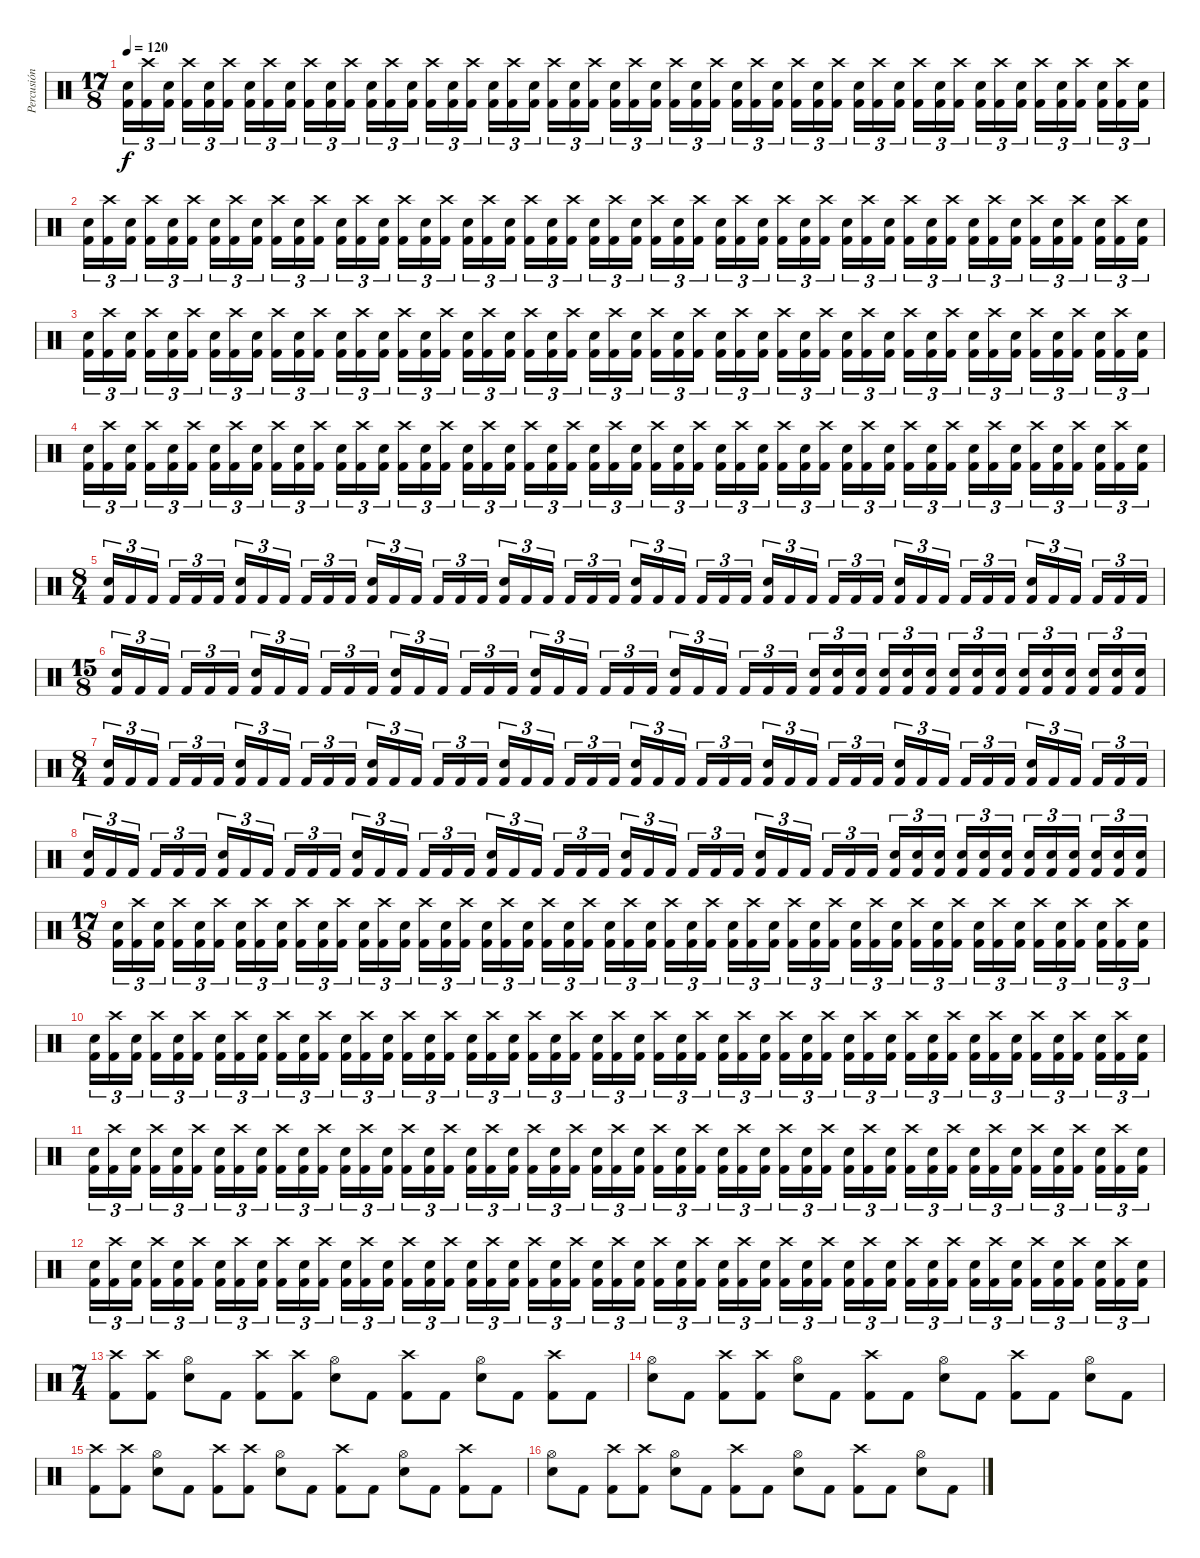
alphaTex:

\track ("Percusión" "Percusión") {instrument percussion}
\staff {score}
\articulation defaults
\ts (17 8)
\tempo 120
\clef neutral
\ks c
("Electric Snare (hit)" "Kick (hit) 2").16{tu (3 2) dy f volume 4} ("Crash high (hit)" "Kick (hit) 2").16{tu (3 2) volume 13} ("Electric Snare (hit)" "Kick (hit) 2").16{tu (3 2)} ("Crash high (hit)" "Kick (hit) 2").16{tu (3 2)} ("Electric Snare (hit)" "Kick (hit) 2").16{tu (3 2)} ("Crash high (hit)" "Kick (hit) 2").16{tu (3 2)} ("Electric Snare (hit)" "Kick (hit) 2").16{tu (3 2)} ("Crash high (hit)" "Kick (hit) 2").16{tu (3 2)} ("Electric Snare (hit)" "Kick (hit) 2").16{tu (3 2)} ("Crash high (hit)" "Kick (hit) 2").16{tu (3 2)} ("Electric Snare (hit)" "Kick (hit) 2").16{tu (3 2)} ("Crash high (hit)" "Kick (hit) 2").16{tu (3 2)} ("Electric Snare (hit)" "Kick (hit) 2").16{tu (3 2)} ("Crash high (hit)" "Kick (hit) 2").16{tu (3 2)} ("Electric Snare (hit)" "Kick (hit) 2").16{tu (3 2)} ("Crash high (hit)" "Kick (hit) 2").16{tu (3 2)} ("Electric Snare (hit)" "Kick (hit) 2").16{tu (3 2)} ("Crash high (hit)" "Kick (hit) 2").16{tu (3 2)} ("Electric Snare (hit)" "Kick (hit) 2").16{tu (3 2)} ("Crash high (hit)" "Kick (hit) 2").16{tu (3 2)} ("Electric Snare (hit)" "Kick (hit) 2").16{tu (3 2)} ("Crash high (hit)" "Kick (hit) 2").16{tu (3 2)} ("Electric Snare (hit)" "Kick (hit) 2").16{tu (3 2)} ("Crash high (hit)" "Kick (hit) 2").16{tu (3 2)} ("Electric Snare (hit)" "Kick (hit) 2").16{tu (3 2)} ("Crash high (hit)" "Kick (hit) 2").16{tu (3 2)} ("Electric Snare (hit)" "Kick (hit) 2").16{tu (3 2)} ("Crash high (hit)" "Kick (hit) 2").16{tu (3 2)} ("Electric Snare (hit)" "Kick (hit) 2").16{tu (3 2)} ("Crash high (hit)" "Kick (hit) 2").16{tu (3 2)} ("Electric Snare (hit)" "Kick (hit) 2").16{tu (3 2)} ("Crash high (hit)" "Kick (hit) 2").16{tu (3 2)} ("Electric Snare (hit)" "Kick (hit) 2").16{tu (3 2)} ("Crash high (hit)" "Kick (hit) 2").16{tu (3 2)} ("Electric Snare (hit)" "Kick (hit) 2").16{tu (3 2)} ("Crash high (hit)" "Kick (hit) 2").16{tu (3 2)} ("Electric Snare (hit)" "Kick (hit) 2").16{tu (3 2)} ("Crash high (hit)" "Kick (hit) 2").16{tu (3 2)} ("Electric Snare (hit)" "Kick (hit) 2").16{tu (3 2)} ("Crash high (hit)" "Kick (hit) 2").16{tu (3 2)} ("Electric Snare (hit)" "Kick (hit) 2").16{tu (3 2)} ("Crash high (hit)" "Kick (hit) 2").16{tu (3 2)} ("Electric Snare (hit)" "Kick (hit) 2").16{tu (3 2)} ("Crash high (hit)" "Kick (hit) 2").16{tu (3 2)} ("Electric Snare (hit)" "Kick (hit) 2").16{tu (3 2)} ("Crash high (hit)" "Kick (hit) 2").16{tu (3 2)} ("Electric Snare (hit)" "Kick (hit) 2").16{tu (3 2)} ("Crash high (hit)" "Kick (hit) 2").16{tu (3 2)} ("Electric Snare (hit)" "Kick (hit) 2").16{tu (3 2)} ("Crash high (hit)" "Kick (hit) 2").16{tu (3 2)} ("Electric Snare (hit)" "Kick (hit) 2").16{tu (3 2)} |
("Electric Snare (hit)" "Kick (hit) 2").16{tu (3 2)} ("Crash high (hit)" "Kick (hit) 2").16{tu (3 2)} ("Electric Snare (hit)" "Kick (hit) 2").16{tu (3 2)} ("Crash high (hit)" "Kick (hit) 2").16{tu (3 2)} ("Electric Snare (hit)" "Kick (hit) 2").16{tu (3 2)} ("Crash high (hit)" "Kick (hit) 2").16{tu (3 2)} ("Electric Snare (hit)" "Kick (hit) 2").16{tu (3 2)} ("Crash high (hit)" "Kick (hit) 2").16{tu (3 2)} ("Electric Snare (hit)" "Kick (hit) 2").16{tu (3 2)} ("Crash high (hit)" "Kick (hit) 2").16{tu (3 2)} ("Electric Snare (hit)" "Kick (hit) 2").16{tu (3 2)} ("Crash high (hit)" "Kick (hit) 2").16{tu (3 2)} ("Electric Snare (hit)" "Kick (hit) 2").16{tu (3 2)} ("Crash high (hit)" "Kick (hit) 2").16{tu (3 2)} ("Electric Snare (hit)" "Kick (hit) 2").16{tu (3 2)} ("Crash high (hit)" "Kick (hit) 2").16{tu (3 2)} ("Electric Snare (hit)" "Kick (hit) 2").16{tu (3 2)} ("Crash high (hit)" "Kick (hit) 2").16{tu (3 2)} ("Electric Snare (hit)" "Kick (hit) 2").16{tu (3 2)} ("Crash high (hit)" "Kick (hit) 2").16{tu (3 2)} ("Electric Snare (hit)" "Kick (hit) 2").16{tu (3 2)} ("Crash high (hit)" "Kick (hit) 2").16{tu (3 2)} ("Electric Snare (hit)" "Kick (hit) 2").16{tu (3 2)} ("Crash high (hit)" "Kick (hit) 2").16{tu (3 2)} ("Electric Snare (hit)" "Kick (hit) 2").16{tu (3 2)} ("Crash high (hit)" "Kick (hit) 2").16{tu (3 2)} ("Electric Snare (hit)" "Kick (hit) 2").16{tu (3 2)} ("Crash high (hit)" "Kick (hit) 2").16{tu (3 2)} ("Electric Snare (hit)" "Kick (hit) 2").16{tu (3 2)} ("Crash high (hit)" "Kick (hit) 2").16{tu (3 2)} ("Electric Snare (hit)" "Kick (hit) 2").16{tu (3 2)} ("Crash high (hit)" "Kick (hit) 2").16{tu (3 2)} ("Electric Snare (hit)" "Kick (hit) 2").16{tu (3 2)} ("Crash high (hit)" "Kick (hit) 2").16{tu (3 2)} ("Electric Snare (hit)" "Kick (hit) 2").16{tu (3 2)} ("Crash high (hit)" "Kick (hit) 2").16{tu (3 2)} ("Electric Snare (hit)" "Kick (hit) 2").16{tu (3 2)} ("Crash high (hit)" "Kick (hit) 2").16{tu (3 2)} ("Electric Snare (hit)" "Kick (hit) 2").16{tu (3 2)} ("Crash high (hit)" "Kick (hit) 2").16{tu (3 2)} ("Electric Snare (hit)" "Kick (hit) 2").16{tu (3 2)} ("Crash high (hit)" "Kick (hit) 2").16{tu (3 2)} ("Electric Snare (hit)" "Kick (hit) 2").16{tu (3 2)} ("Crash high (hit)" "Kick (hit) 2").16{tu (3 2)} ("Electric Snare (hit)" "Kick (hit) 2").16{tu (3 2)} ("Crash high (hit)" "Kick (hit) 2").16{tu (3 2)} ("Electric Snare (hit)" "Kick (hit) 2").16{tu (3 2)} ("Crash high (hit)" "Kick (hit) 2").16{tu (3 2)} ("Electric Snare (hit)" "Kick (hit) 2").16{tu (3 2)} ("Crash high (hit)" "Kick (hit) 2").16{tu (3 2)} ("Electric Snare (hit)" "Kick (hit) 2").16{tu (3 2)} |
("Electric Snare (hit)" "Kick (hit) 2").16{tu (3 2)} ("Crash high (hit)" "Kick (hit) 2").16{tu (3 2)} ("Electric Snare (hit)" "Kick (hit) 2").16{tu (3 2)} ("Crash high (hit)" "Kick (hit) 2").16{tu (3 2)} ("Electric Snare (hit)" "Kick (hit) 2").16{tu (3 2)} ("Crash high (hit)" "Kick (hit) 2").16{tu (3 2)} ("Electric Snare (hit)" "Kick (hit) 2").16{tu (3 2)} ("Crash high (hit)" "Kick (hit) 2").16{tu (3 2)} ("Electric Snare (hit)" "Kick (hit) 2").16{tu (3 2)} ("Crash high (hit)" "Kick (hit) 2").16{tu (3 2)} ("Electric Snare (hit)" "Kick (hit) 2").16{tu (3 2)} ("Crash high (hit)" "Kick (hit) 2").16{tu (3 2)} ("Electric Snare (hit)" "Kick (hit) 2").16{tu (3 2)} ("Crash high (hit)" "Kick (hit) 2").16{tu (3 2)} ("Electric Snare (hit)" "Kick (hit) 2").16{tu (3 2)} ("Crash high (hit)" "Kick (hit) 2").16{tu (3 2)} ("Electric Snare (hit)" "Kick (hit) 2").16{tu (3 2)} ("Crash high (hit)" "Kick (hit) 2").16{tu (3 2)} ("Electric Snare (hit)" "Kick (hit) 2").16{tu (3 2)} ("Crash high (hit)" "Kick (hit) 2").16{tu (3 2)} ("Electric Snare (hit)" "Kick (hit) 2").16{tu (3 2)} ("Crash high (hit)" "Kick (hit) 2").16{tu (3 2)} ("Electric Snare (hit)" "Kick (hit) 2").16{tu (3 2)} ("Crash high (hit)" "Kick (hit) 2").16{tu (3 2)} ("Electric Snare (hit)" "Kick (hit) 2").16{tu (3 2)} ("Crash high (hit)" "Kick (hit) 2").16{tu (3 2)} ("Electric Snare (hit)" "Kick (hit) 2").16{tu (3 2)} ("Crash high (hit)" "Kick (hit) 2").16{tu (3 2)} ("Electric Snare (hit)" "Kick (hit) 2").16{tu (3 2)} ("Crash high (hit)" "Kick (hit) 2").16{tu (3 2)} ("Electric Snare (hit)" "Kick (hit) 2").16{tu (3 2)} ("Crash high (hit)" "Kick (hit) 2").16{tu (3 2)} ("Electric Snare (hit)" "Kick (hit) 2").16{tu (3 2)} ("Crash high (hit)" "Kick (hit) 2").16{tu (3 2)} ("Electric Snare (hit)" "Kick (hit) 2").16{tu (3 2)} ("Crash high (hit)" "Kick (hit) 2").16{tu (3 2)} ("Electric Snare (hit)" "Kick (hit) 2").16{tu (3 2)} ("Crash high (hit)" "Kick (hit) 2").16{tu (3 2)} ("Electric Snare (hit)" "Kick (hit) 2").16{tu (3 2)} ("Crash high (hit)" "Kick (hit) 2").16{tu (3 2)} ("Electric Snare (hit)" "Kick (hit) 2").16{tu (3 2)} ("Crash high (hit)" "Kick (hit) 2").16{tu (3 2)} ("Electric Snare (hit)" "Kick (hit) 2").16{tu (3 2)} ("Crash high (hit)" "Kick (hit) 2").16{tu (3 2)} ("Electric Snare (hit)" "Kick (hit) 2").16{tu (3 2)} ("Crash high (hit)" "Kick (hit) 2").16{tu (3 2)} ("Electric Snare (hit)" "Kick (hit) 2").16{tu (3 2)} ("Crash high (hit)" "Kick (hit) 2").16{tu (3 2)} ("Electric Snare (hit)" "Kick (hit) 2").16{tu (3 2)} ("Crash high (hit)" "Kick (hit) 2").16{tu (3 2)} ("Electric Snare (hit)" "Kick (hit) 2").16{tu (3 2)} |
("Electric Snare (hit)" "Kick (hit) 2").16{tu (3 2)} ("Crash high (hit)" "Kick (hit) 2").16{tu (3 2)} ("Electric Snare (hit)" "Kick (hit) 2").16{tu (3 2)} ("Crash high (hit)" "Kick (hit) 2").16{tu (3 2)} ("Electric Snare (hit)" "Kick (hit) 2").16{tu (3 2)} ("Crash high (hit)" "Kick (hit) 2").16{tu (3 2)} ("Electric Snare (hit)" "Kick (hit) 2").16{tu (3 2)} ("Crash high (hit)" "Kick (hit) 2").16{tu (3 2)} ("Electric Snare (hit)" "Kick (hit) 2").16{tu (3 2)} ("Crash high (hit)" "Kick (hit) 2").16{tu (3 2)} ("Electric Snare (hit)" "Kick (hit) 2").16{tu (3 2)} ("Crash high (hit)" "Kick (hit) 2").16{tu (3 2)} ("Electric Snare (hit)" "Kick (hit) 2").16{tu (3 2)} ("Crash high (hit)" "Kick (hit) 2").16{tu (3 2)} ("Electric Snare (hit)" "Kick (hit) 2").16{tu (3 2)} ("Crash high (hit)" "Kick (hit) 2").16{tu (3 2)} ("Electric Snare (hit)" "Kick (hit) 2").16{tu (3 2)} ("Crash high (hit)" "Kick (hit) 2").16{tu (3 2)} ("Electric Snare (hit)" "Kick (hit) 2").16{tu (3 2)} ("Crash high (hit)" "Kick (hit) 2").16{tu (3 2)} ("Electric Snare (hit)" "Kick (hit) 2").16{tu (3 2)} ("Crash high (hit)" "Kick (hit) 2").16{tu (3 2)} ("Electric Snare (hit)" "Kick (hit) 2").16{tu (3 2)} ("Crash high (hit)" "Kick (hit) 2").16{tu (3 2)} ("Electric Snare (hit)" "Kick (hit) 2").16{tu (3 2)} ("Crash high (hit)" "Kick (hit) 2").16{tu (3 2)} ("Electric Snare (hit)" "Kick (hit) 2").16{tu (3 2)} ("Crash high (hit)" "Kick (hit) 2").16{tu (3 2)} ("Electric Snare (hit)" "Kick (hit) 2").16{tu (3 2)} ("Crash high (hit)" "Kick (hit) 2").16{tu (3 2)} ("Electric Snare (hit)" "Kick (hit) 2").16{tu (3 2)} ("Crash high (hit)" "Kick (hit) 2").16{tu (3 2)} ("Electric Snare (hit)" "Kick (hit) 2").16{tu (3 2)} ("Crash high (hit)" "Kick (hit) 2").16{tu (3 2)} ("Electric Snare (hit)" "Kick (hit) 2").16{tu (3 2)} ("Crash high (hit)" "Kick (hit) 2").16{tu (3 2)} ("Electric Snare (hit)" "Kick (hit) 2").16{tu (3 2)} ("Crash high (hit)" "Kick (hit) 2").16{tu (3 2)} ("Electric Snare (hit)" "Kick (hit) 2").16{tu (3 2)} ("Crash high (hit)" "Kick (hit) 2").16{tu (3 2)} ("Electric Snare (hit)" "Kick (hit) 2").16{tu (3 2)} ("Crash high (hit)" "Kick (hit) 2").16{tu (3 2)} ("Electric Snare (hit)" "Kick (hit) 2").16{tu (3 2)} ("Crash high (hit)" "Kick (hit) 2").16{tu (3 2)} ("Electric Snare (hit)" "Kick (hit) 2").16{tu (3 2)} ("Crash high (hit)" "Kick (hit) 2").16{tu (3 2)} ("Electric Snare (hit)" "Kick (hit) 2").16{tu (3 2)} ("Crash high (hit)" "Kick (hit) 2").16{tu (3 2)} ("Electric Snare (hit)" "Kick (hit) 2").16{tu (3 2)} ("Crash high (hit)" "Kick (hit) 2").16{tu (3 2)} ("Electric Snare (hit)" "Kick (hit) 2").16{tu (3 2)} |
\ts (8 4)
("Electric Snare (hit)" "Kick (hit) 2").16{tu (3 2)} "Kick (hit) 2".16{tu (3 2)} "Kick (hit) 2".16{tu (3 2)} "Kick (hit) 2".16{tu (3 2)} "Kick (hit) 2".16{tu (3 2)} "Kick (hit) 2".16{tu (3 2)} ("Electric Snare (hit)" "Kick (hit) 2").16{tu (3 2)} "Kick (hit) 2".16{tu (3 2)} "Kick (hit) 2".16{tu (3 2)} "Kick (hit) 2".16{tu (3 2)} "Kick (hit) 2".16{tu (3 2)} "Kick (hit) 2".16{tu (3 2)} ("Electric Snare (hit)" "Kick (hit) 2").16{tu (3 2)} "Kick (hit) 2".16{tu (3 2)} "Kick (hit) 2".16{tu (3 2)} "Kick (hit) 2".16{tu (3 2)} "Kick (hit) 2".16{tu (3 2)} "Kick (hit) 2".16{tu (3 2)} ("Electric Snare (hit)" "Kick (hit) 2").16{tu (3 2)} "Kick (hit) 2".16{tu (3 2)} "Kick (hit) 2".16{tu (3 2)} "Kick (hit) 2".16{tu (3 2)} "Kick (hit) 2".16{tu (3 2)} "Kick (hit) 2".16{tu (3 2)} ("Electric Snare (hit)" "Kick (hit) 2").16{tu (3 2)} "Kick (hit) 2".16{tu (3 2)} "Kick (hit) 2".16{tu (3 2)} "Kick (hit) 2".16{tu (3 2)} "Kick (hit) 2".16{tu (3 2)} "Kick (hit) 2".16{tu (3 2)} ("Electric Snare (hit)" "Kick (hit) 2").16{tu (3 2)} "Kick (hit) 2".16{tu (3 2)} "Kick (hit) 2".16{tu (3 2)} "Kick (hit) 2".16{tu (3 2)} "Kick (hit) 2".16{tu (3 2)} "Kick (hit) 2".16{tu (3 2)} ("Electric Snare (hit)" "Kick (hit) 2").16{tu (3 2)} "Kick (hit) 2".16{tu (3 2)} "Kick (hit) 2".16{tu (3 2)} "Kick (hit) 2".16{tu (3 2)} "Kick (hit) 2".16{tu (3 2)} "Kick (hit) 2".16{tu (3 2)} ("Electric Snare (hit)" "Kick (hit) 2").16{tu (3 2)} "Kick (hit) 2".16{tu (3 2)} "Kick (hit) 2".16{tu (3 2)} "Kick (hit) 2".16{tu (3 2)} "Kick (hit) 2".16{tu (3 2)} "Kick (hit) 2".16{tu (3 2)} |
\ts (15 8)
("Electric Snare (hit)" "Kick (hit) 2").16{tu (3 2)} "Kick (hit) 2".16{tu (3 2)} "Kick (hit) 2".16{tu (3 2)} "Kick (hit) 2".16{tu (3 2)} "Kick (hit) 2".16{tu (3 2)} "Kick (hit) 2".16{tu (3 2)} ("Electric Snare (hit)" "Kick (hit) 2").16{tu (3 2)} "Kick (hit) 2".16{tu (3 2)} "Kick (hit) 2".16{tu (3 2)} "Kick (hit) 2".16{tu (3 2)} "Kick (hit) 2".16{tu (3 2)} "Kick (hit) 2".16{tu (3 2)} ("Electric Snare (hit)" "Kick (hit) 2").16{tu (3 2)} "Kick (hit) 2".16{tu (3 2)} "Kick (hit) 2".16{tu (3 2)} "Kick (hit) 2".16{tu (3 2)} "Kick (hit) 2".16{tu (3 2)} "Kick (hit) 2".16{tu (3 2)} ("Electric Snare (hit)" "Kick (hit) 2").16{tu (3 2)} "Kick (hit) 2".16{tu (3 2)} "Kick (hit) 2".16{tu (3 2)} "Kick (hit) 2".16{tu (3 2)} "Kick (hit) 2".16{tu (3 2)} "Kick (hit) 2".16{tu (3 2)} ("Electric Snare (hit)" "Kick (hit) 2").16{tu (3 2)} "Kick (hit) 2".16{tu (3 2)} "Kick (hit) 2".16{tu (3 2)} "Kick (hit) 2".16{tu (3 2)} "Kick (hit) 2".16{tu (3 2)} "Kick (hit) 2".16{tu (3 2)} ("Electric Snare (hit)" "Kick (hit) 2").16{tu (3 2)} ("Electric Snare (hit)" "Kick (hit) 2").16{tu (3 2)} ("Electric Snare (hit)" "Kick (hit) 2").16{tu (3 2)} ("Electric Snare (hit)" "Kick (hit) 2").16{tu (3 2)} ("Electric Snare (hit)" "Kick (hit) 2").16{tu (3 2)} ("Electric Snare (hit)" "Kick (hit) 2").16{tu (3 2)} ("Electric Snare (hit)" "Kick (hit) 2").16{tu (3 2)} ("Electric Snare (hit)" "Kick (hit) 2").16{tu (3 2)} ("Electric Snare (hit)" "Kick (hit) 2").16{tu (3 2)} ("Electric Snare (hit)" "Kick (hit) 2").16{tu (3 2)} ("Electric Snare (hit)" "Kick (hit) 2").16{tu (3 2)} ("Electric Snare (hit)" "Kick (hit) 2").16{tu (3 2)} ("Electric Snare (hit)" "Kick (hit) 2").16{tu (3 2)} ("Electric Snare (hit)" "Kick (hit) 2").16{tu (3 2)} ("Electric Snare (hit)" "Kick (hit) 2").16{tu (3 2)} |
\ts (8 4)
("Electric Snare (hit)" "Kick (hit) 2").16{tu (3 2)} "Kick (hit) 2".16{tu (3 2)} "Kick (hit) 2".16{tu (3 2)} "Kick (hit) 2".16{tu (3 2)} "Kick (hit) 2".16{tu (3 2)} "Kick (hit) 2".16{tu (3 2)} ("Electric Snare (hit)" "Kick (hit) 2").16{tu (3 2)} "Kick (hit) 2".16{tu (3 2)} "Kick (hit) 2".16{tu (3 2)} "Kick (hit) 2".16{tu (3 2)} "Kick (hit) 2".16{tu (3 2)} "Kick (hit) 2".16{tu (3 2)} ("Electric Snare (hit)" "Kick (hit) 2").16{tu (3 2)} "Kick (hit) 2".16{tu (3 2)} "Kick (hit) 2".16{tu (3 2)} "Kick (hit) 2".16{tu (3 2)} "Kick (hit) 2".16{tu (3 2)} "Kick (hit) 2".16{tu (3 2)} ("Electric Snare (hit)" "Kick (hit) 2").16{tu (3 2)} "Kick (hit) 2".16{tu (3 2)} "Kick (hit) 2".16{tu (3 2)} "Kick (hit) 2".16{tu (3 2)} "Kick (hit) 2".16{tu (3 2)} "Kick (hit) 2".16{tu (3 2)} ("Electric Snare (hit)" "Kick (hit) 2").16{tu (3 2)} "Kick (hit) 2".16{tu (3 2)} "Kick (hit) 2".16{tu (3 2)} "Kick (hit) 2".16{tu (3 2)} "Kick (hit) 2".16{tu (3 2)} "Kick (hit) 2".16{tu (3 2)} ("Electric Snare (hit)" "Kick (hit) 2").16{tu (3 2)} "Kick (hit) 2".16{tu (3 2)} "Kick (hit) 2".16{tu (3 2)} "Kick (hit) 2".16{tu (3 2)} "Kick (hit) 2".16{tu (3 2)} "Kick (hit) 2".16{tu (3 2)} ("Electric Snare (hit)" "Kick (hit) 2").16{tu (3 2)} "Kick (hit) 2".16{tu (3 2)} "Kick (hit) 2".16{tu (3 2)} "Kick (hit) 2".16{tu (3 2)} "Kick (hit) 2".16{tu (3 2)} "Kick (hit) 2".16{tu (3 2)} ("Electric Snare (hit)" "Kick (hit) 2").16{tu (3 2)} "Kick (hit) 2".16{tu (3 2)} "Kick (hit) 2".16{tu (3 2)} "Kick (hit) 2".16{tu (3 2)} "Kick (hit) 2".16{tu (3 2)} "Kick (hit) 2".16{tu (3 2)} |
("Electric Snare (hit)" "Kick (hit) 2").16{tu (3 2)} "Kick (hit) 2".16{tu (3 2)} "Kick (hit) 2".16{tu (3 2)} "Kick (hit) 2".16{tu (3 2)} "Kick (hit) 2".16{tu (3 2)} "Kick (hit) 2".16{tu (3 2)} ("Electric Snare (hit)" "Kick (hit) 2").16{tu (3 2)} "Kick (hit) 2".16{tu (3 2)} "Kick (hit) 2".16{tu (3 2)} "Kick (hit) 2".16{tu (3 2)} "Kick (hit) 2".16{tu (3 2)} "Kick (hit) 2".16{tu (3 2)} ("Electric Snare (hit)" "Kick (hit) 2").16{tu (3 2)} "Kick (hit) 2".16{tu (3 2)} "Kick (hit) 2".16{tu (3 2)} "Kick (hit) 2".16{tu (3 2)} "Kick (hit) 2".16{tu (3 2)} "Kick (hit) 2".16{tu (3 2)} ("Electric Snare (hit)" "Kick (hit) 2").16{tu (3 2)} "Kick (hit) 2".16{tu (3 2)} "Kick (hit) 2".16{tu (3 2)} "Kick (hit) 2".16{tu (3 2)} "Kick (hit) 2".16{tu (3 2)} "Kick (hit) 2".16{tu (3 2)} ("Electric Snare (hit)" "Kick (hit) 2").16{tu (3 2)} "Kick (hit) 2".16{tu (3 2)} "Kick (hit) 2".16{tu (3 2)} "Kick (hit) 2".16{tu (3 2)} "Kick (hit) 2".16{tu (3 2)} "Kick (hit) 2".16{tu (3 2)} ("Electric Snare (hit)" "Kick (hit) 2").16{tu (3 2)} "Kick (hit) 2".16{tu (3 2)} "Kick (hit) 2".16{tu (3 2)} "Kick (hit) 2".16{tu (3 2)} "Kick (hit) 2".16{tu (3 2)} "Kick (hit) 2".16{tu (3 2)} ("Electric Snare (hit)" "Kick (hit) 2").16{tu (3 2)} ("Electric Snare (hit)" "Kick (hit) 2").16{tu (3 2)} ("Electric Snare (hit)" "Kick (hit) 2").16{tu (3 2)} ("Electric Snare (hit)" "Kick (hit) 2").16{tu (3 2)} ("Electric Snare (hit)" "Kick (hit) 2").16{tu (3 2)} ("Electric Snare (hit)" "Kick (hit) 2").16{tu (3 2)} ("Electric Snare (hit)" "Kick (hit) 2").16{tu (3 2)} ("Electric Snare (hit)" "Kick (hit) 2").16{tu (3 2)} ("Electric Snare (hit)" "Kick (hit) 2").16{tu (3 2)} ("Electric Snare (hit)" "Kick (hit) 2").16{tu (3 2)} ("Electric Snare (hit)" "Kick (hit) 2").16{tu (3 2)} ("Electric Snare (hit)" "Kick (hit) 2").16{tu (3 2)} |
\ts (17 8)
("Electric Snare (hit)" "Kick (hit) 2").16{tu (3 2)} ("Crash high (hit)" "Kick (hit) 2").16{tu (3 2)} ("Electric Snare (hit)" "Kick (hit) 2").16{tu (3 2)} ("Crash high (hit)" "Kick (hit) 2").16{tu (3 2)} ("Electric Snare (hit)" "Kick (hit) 2").16{tu (3 2)} ("Crash high (hit)" "Kick (hit) 2").16{tu (3 2)} ("Electric Snare (hit)" "Kick (hit) 2").16{tu (3 2)} ("Crash high (hit)" "Kick (hit) 2").16{tu (3 2)} ("Electric Snare (hit)" "Kick (hit) 2").16{tu (3 2)} ("Crash high (hit)" "Kick (hit) 2").16{tu (3 2)} ("Electric Snare (hit)" "Kick (hit) 2").16{tu (3 2)} ("Crash high (hit)" "Kick (hit) 2").16{tu (3 2)} ("Electric Snare (hit)" "Kick (hit) 2").16{tu (3 2)} ("Crash high (hit)" "Kick (hit) 2").16{tu (3 2)} ("Electric Snare (hit)" "Kick (hit) 2").16{tu (3 2)} ("Crash high (hit)" "Kick (hit) 2").16{tu (3 2)} ("Electric Snare (hit)" "Kick (hit) 2").16{tu (3 2)} ("Crash high (hit)" "Kick (hit) 2").16{tu (3 2)} ("Electric Snare (hit)" "Kick (hit) 2").16{tu (3 2)} ("Crash high (hit)" "Kick (hit) 2").16{tu (3 2)} ("Electric Snare (hit)" "Kick (hit) 2").16{tu (3 2)} ("Crash high (hit)" "Kick (hit) 2").16{tu (3 2)} ("Electric Snare (hit)" "Kick (hit) 2").16{tu (3 2)} ("Crash high (hit)" "Kick (hit) 2").16{tu (3 2)} ("Electric Snare (hit)" "Kick (hit) 2").16{tu (3 2)} ("Crash high (hit)" "Kick (hit) 2").16{tu (3 2)} ("Electric Snare (hit)" "Kick (hit) 2").16{tu (3 2)} ("Crash high (hit)" "Kick (hit) 2").16{tu (3 2)} ("Electric Snare (hit)" "Kick (hit) 2").16{tu (3 2)} ("Crash high (hit)" "Kick (hit) 2").16{tu (3 2)} ("Electric Snare (hit)" "Kick (hit) 2").16{tu (3 2)} ("Crash high (hit)" "Kick (hit) 2").16{tu (3 2)} ("Electric Snare (hit)" "Kick (hit) 2").16{tu (3 2)} ("Crash high (hit)" "Kick (hit) 2").16{tu (3 2)} ("Electric Snare (hit)" "Kick (hit) 2").16{tu (3 2)} ("Crash high (hit)" "Kick (hit) 2").16{tu (3 2)} ("Electric Snare (hit)" "Kick (hit) 2").16{tu (3 2)} ("Crash high (hit)" "Kick (hit) 2").16{tu (3 2)} ("Electric Snare (hit)" "Kick (hit) 2").16{tu (3 2)} ("Crash high (hit)" "Kick (hit) 2").16{tu (3 2)} ("Electric Snare (hit)" "Kick (hit) 2").16{tu (3 2)} ("Crash high (hit)" "Kick (hit) 2").16{tu (3 2)} ("Electric Snare (hit)" "Kick (hit) 2").16{tu (3 2)} ("Crash high (hit)" "Kick (hit) 2").16{tu (3 2)} ("Electric Snare (hit)" "Kick (hit) 2").16{tu (3 2)} ("Crash high (hit)" "Kick (hit) 2").16{tu (3 2)} ("Electric Snare (hit)" "Kick (hit) 2").16{tu (3 2)} ("Crash high (hit)" "Kick (hit) 2").16{tu (3 2)} ("Electric Snare (hit)" "Kick (hit) 2").16{tu (3 2)} ("Crash high (hit)" "Kick (hit) 2").16{tu (3 2)} ("Electric Snare (hit)" "Kick (hit) 2").16{tu (3 2)} |
("Electric Snare (hit)" "Kick (hit) 2").16{tu (3 2)} ("Crash high (hit)" "Kick (hit) 2").16{tu (3 2)} ("Electric Snare (hit)" "Kick (hit) 2").16{tu (3 2)} ("Crash high (hit)" "Kick (hit) 2").16{tu (3 2)} ("Electric Snare (hit)" "Kick (hit) 2").16{tu (3 2)} ("Crash high (hit)" "Kick (hit) 2").16{tu (3 2)} ("Electric Snare (hit)" "Kick (hit) 2").16{tu (3 2)} ("Crash high (hit)" "Kick (hit) 2").16{tu (3 2)} ("Electric Snare (hit)" "Kick (hit) 2").16{tu (3 2)} ("Crash high (hit)" "Kick (hit) 2").16{tu (3 2)} ("Electric Snare (hit)" "Kick (hit) 2").16{tu (3 2)} ("Crash high (hit)" "Kick (hit) 2").16{tu (3 2)} ("Electric Snare (hit)" "Kick (hit) 2").16{tu (3 2)} ("Crash high (hit)" "Kick (hit) 2").16{tu (3 2)} ("Electric Snare (hit)" "Kick (hit) 2").16{tu (3 2)} ("Crash high (hit)" "Kick (hit) 2").16{tu (3 2)} ("Electric Snare (hit)" "Kick (hit) 2").16{tu (3 2)} ("Crash high (hit)" "Kick (hit) 2").16{tu (3 2)} ("Electric Snare (hit)" "Kick (hit) 2").16{tu (3 2)} ("Crash high (hit)" "Kick (hit) 2").16{tu (3 2)} ("Electric Snare (hit)" "Kick (hit) 2").16{tu (3 2)} ("Crash high (hit)" "Kick (hit) 2").16{tu (3 2)} ("Electric Snare (hit)" "Kick (hit) 2").16{tu (3 2)} ("Crash high (hit)" "Kick (hit) 2").16{tu (3 2)} ("Electric Snare (hit)" "Kick (hit) 2").16{tu (3 2)} ("Crash high (hit)" "Kick (hit) 2").16{tu (3 2)} ("Electric Snare (hit)" "Kick (hit) 2").16{tu (3 2)} ("Crash high (hit)" "Kick (hit) 2").16{tu (3 2)} ("Electric Snare (hit)" "Kick (hit) 2").16{tu (3 2)} ("Crash high (hit)" "Kick (hit) 2").16{tu (3 2)} ("Electric Snare (hit)" "Kick (hit) 2").16{tu (3 2)} ("Crash high (hit)" "Kick (hit) 2").16{tu (3 2)} ("Electric Snare (hit)" "Kick (hit) 2").16{tu (3 2)} ("Crash high (hit)" "Kick (hit) 2").16{tu (3 2)} ("Electric Snare (hit)" "Kick (hit) 2").16{tu (3 2)} ("Crash high (hit)" "Kick (hit) 2").16{tu (3 2)} ("Electric Snare (hit)" "Kick (hit) 2").16{tu (3 2)} ("Crash high (hit)" "Kick (hit) 2").16{tu (3 2)} ("Electric Snare (hit)" "Kick (hit) 2").16{tu (3 2)} ("Crash high (hit)" "Kick (hit) 2").16{tu (3 2)} ("Electric Snare (hit)" "Kick (hit) 2").16{tu (3 2)} ("Crash high (hit)" "Kick (hit) 2").16{tu (3 2)} ("Electric Snare (hit)" "Kick (hit) 2").16{tu (3 2)} ("Crash high (hit)" "Kick (hit) 2").16{tu (3 2)} ("Electric Snare (hit)" "Kick (hit) 2").16{tu (3 2)} ("Crash high (hit)" "Kick (hit) 2").16{tu (3 2)} ("Electric Snare (hit)" "Kick (hit) 2").16{tu (3 2)} ("Crash high (hit)" "Kick (hit) 2").16{tu (3 2)} ("Electric Snare (hit)" "Kick (hit) 2").16{tu (3 2)} ("Crash high (hit)" "Kick (hit) 2").16{tu (3 2)} ("Electric Snare (hit)" "Kick (hit) 2").16{tu (3 2)} |
("Electric Snare (hit)" "Kick (hit) 2").16{tu (3 2)} ("Crash high (hit)" "Kick (hit) 2").16{tu (3 2)} ("Electric Snare (hit)" "Kick (hit) 2").16{tu (3 2)} ("Crash high (hit)" "Kick (hit) 2").16{tu (3 2)} ("Electric Snare (hit)" "Kick (hit) 2").16{tu (3 2)} ("Crash high (hit)" "Kick (hit) 2").16{tu (3 2)} ("Electric Snare (hit)" "Kick (hit) 2").16{tu (3 2)} ("Crash high (hit)" "Kick (hit) 2").16{tu (3 2)} ("Electric Snare (hit)" "Kick (hit) 2").16{tu (3 2)} ("Crash high (hit)" "Kick (hit) 2").16{tu (3 2)} ("Electric Snare (hit)" "Kick (hit) 2").16{tu (3 2)} ("Crash high (hit)" "Kick (hit) 2").16{tu (3 2)} ("Electric Snare (hit)" "Kick (hit) 2").16{tu (3 2)} ("Crash high (hit)" "Kick (hit) 2").16{tu (3 2)} ("Electric Snare (hit)" "Kick (hit) 2").16{tu (3 2)} ("Crash high (hit)" "Kick (hit) 2").16{tu (3 2)} ("Electric Snare (hit)" "Kick (hit) 2").16{tu (3 2)} ("Crash high (hit)" "Kick (hit) 2").16{tu (3 2)} ("Electric Snare (hit)" "Kick (hit) 2").16{tu (3 2)} ("Crash high (hit)" "Kick (hit) 2").16{tu (3 2)} ("Electric Snare (hit)" "Kick (hit) 2").16{tu (3 2)} ("Crash high (hit)" "Kick (hit) 2").16{tu (3 2)} ("Electric Snare (hit)" "Kick (hit) 2").16{tu (3 2)} ("Crash high (hit)" "Kick (hit) 2").16{tu (3 2)} ("Electric Snare (hit)" "Kick (hit) 2").16{tu (3 2)} ("Crash high (hit)" "Kick (hit) 2").16{tu (3 2)} ("Electric Snare (hit)" "Kick (hit) 2").16{tu (3 2)} ("Crash high (hit)" "Kick (hit) 2").16{tu (3 2)} ("Electric Snare (hit)" "Kick (hit) 2").16{tu (3 2)} ("Crash high (hit)" "Kick (hit) 2").16{tu (3 2)} ("Electric Snare (hit)" "Kick (hit) 2").16{tu (3 2)} ("Crash high (hit)" "Kick (hit) 2").16{tu (3 2)} ("Electric Snare (hit)" "Kick (hit) 2").16{tu (3 2)} ("Crash high (hit)" "Kick (hit) 2").16{tu (3 2)} ("Electric Snare (hit)" "Kick (hit) 2").16{tu (3 2)} ("Crash high (hit)" "Kick (hit) 2").16{tu (3 2)} ("Electric Snare (hit)" "Kick (hit) 2").16{tu (3 2)} ("Crash high (hit)" "Kick (hit) 2").16{tu (3 2)} ("Electric Snare (hit)" "Kick (hit) 2").16{tu (3 2)} ("Crash high (hit)" "Kick (hit) 2").16{tu (3 2)} ("Electric Snare (hit)" "Kick (hit) 2").16{tu (3 2)} ("Crash high (hit)" "Kick (hit) 2").16{tu (3 2)} ("Electric Snare (hit)" "Kick (hit) 2").16{tu (3 2)} ("Crash high (hit)" "Kick (hit) 2").16{tu (3 2)} ("Electric Snare (hit)" "Kick (hit) 2").16{tu (3 2)} ("Crash high (hit)" "Kick (hit) 2").16{tu (3 2)} ("Electric Snare (hit)" "Kick (hit) 2").16{tu (3 2)} ("Crash high (hit)" "Kick (hit) 2").16{tu (3 2)} ("Electric Snare (hit)" "Kick (hit) 2").16{tu (3 2)} ("Crash high (hit)" "Kick (hit) 2").16{tu (3 2)} ("Electric Snare (hit)" "Kick (hit) 2").16{tu (3 2)} |
("Electric Snare (hit)" "Kick (hit) 2").16{tu (3 2)} ("Crash high (hit)" "Kick (hit) 2").16{tu (3 2)} ("Electric Snare (hit)" "Kick (hit) 2").16{tu (3 2)} ("Crash high (hit)" "Kick (hit) 2").16{tu (3 2)} ("Electric Snare (hit)" "Kick (hit) 2").16{tu (3 2)} ("Crash high (hit)" "Kick (hit) 2").16{tu (3 2)} ("Electric Snare (hit)" "Kick (hit) 2").16{tu (3 2)} ("Crash high (hit)" "Kick (hit) 2").16{tu (3 2)} ("Electric Snare (hit)" "Kick (hit) 2").16{tu (3 2)} ("Crash high (hit)" "Kick (hit) 2").16{tu (3 2)} ("Electric Snare (hit)" "Kick (hit) 2").16{tu (3 2)} ("Crash high (hit)" "Kick (hit) 2").16{tu (3 2)} ("Electric Snare (hit)" "Kick (hit) 2").16{tu (3 2)} ("Crash high (hit)" "Kick (hit) 2").16{tu (3 2)} ("Electric Snare (hit)" "Kick (hit) 2").16{tu (3 2)} ("Crash high (hit)" "Kick (hit) 2").16{tu (3 2)} ("Electric Snare (hit)" "Kick (hit) 2").16{tu (3 2)} ("Crash high (hit)" "Kick (hit) 2").16{tu (3 2)} ("Electric Snare (hit)" "Kick (hit) 2").16{tu (3 2)} ("Crash high (hit)" "Kick (hit) 2").16{tu (3 2)} ("Electric Snare (hit)" "Kick (hit) 2").16{tu (3 2)} ("Crash high (hit)" "Kick (hit) 2").16{tu (3 2)} ("Electric Snare (hit)" "Kick (hit) 2").16{tu (3 2)} ("Crash high (hit)" "Kick (hit) 2").16{tu (3 2)} ("Electric Snare (hit)" "Kick (hit) 2").16{tu (3 2)} ("Crash high (hit)" "Kick (hit) 2").16{tu (3 2)} ("Electric Snare (hit)" "Kick (hit) 2").16{tu (3 2)} ("Crash high (hit)" "Kick (hit) 2").16{tu (3 2)} ("Electric Snare (hit)" "Kick (hit) 2").16{tu (3 2)} ("Crash high (hit)" "Kick (hit) 2").16{tu (3 2)} ("Electric Snare (hit)" "Kick (hit) 2").16{tu (3 2)} ("Crash high (hit)" "Kick (hit) 2").16{tu (3 2)} ("Electric Snare (hit)" "Kick (hit) 2").16{tu (3 2)} ("Crash high (hit)" "Kick (hit) 2").16{tu (3 2)} ("Electric Snare (hit)" "Kick (hit) 2").16{tu (3 2)} ("Crash high (hit)" "Kick (hit) 2").16{tu (3 2)} ("Electric Snare (hit)" "Kick (hit) 2").16{tu (3 2)} ("Crash high (hit)" "Kick (hit) 2").16{tu (3 2)} ("Electric Snare (hit)" "Kick (hit) 2").16{tu (3 2)} ("Crash high (hit)" "Kick (hit) 2").16{tu (3 2)} ("Electric Snare (hit)" "Kick (hit) 2").16{tu (3 2)} ("Crash high (hit)" "Kick (hit) 2").16{tu (3 2)} ("Electric Snare (hit)" "Kick (hit) 2").16{tu (3 2)} ("Crash high (hit)" "Kick (hit) 2").16{tu (3 2)} ("Electric Snare (hit)" "Kick (hit) 2").16{tu (3 2)} ("Crash high (hit)" "Kick (hit) 2").16{tu (3 2)} ("Electric Snare (hit)" "Kick (hit) 2").16{tu (3 2)} ("Crash high (hit)" "Kick (hit) 2").16{tu (3 2)} ("Electric Snare (hit)" "Kick (hit) 2").16{tu (3 2)} ("Crash high (hit)" "Kick (hit) 2").16{tu (3 2)} ("Electric Snare (hit)" "Kick (hit) 2").16{tu (3 2)} |
\ts (7 4)
("Crash high (hit)" "Kick (hit) 2").8 ("Crash high (hit)" "Kick (hit) 2").8 ("Hi-Hat (open)" "Electric Snare (hit)").8 "Kick (hit) 2".8 ("Crash high (hit)" "Kick (hit) 2").8 ("Crash high (hit)" "Kick (hit) 2").8 ("Hi-Hat (open)" "Electric Snare (hit)").8 "Kick (hit) 2".8 ("Crash high (hit)" "Kick (hit) 2").8 "Kick (hit) 2".8 ("Hi-Hat (open)" "Electric Snare (hit)").8 "Kick (hit) 2".8 ("Crash high (hit)" "Kick (hit) 2").8 "Kick (hit) 2".8 |
("Hi-Hat (open)" "Electric Snare (hit)").8 "Kick (hit) 2".8 ("Crash high (hit)" "Kick (hit) 2").8 ("Crash high (hit)" "Kick (hit) 2").8 ("Hi-Hat (open)" "Electric Snare (hit)").8 "Kick (hit) 2".8 ("Crash high (hit)" "Kick (hit) 2").8 "Kick (hit) 2".8 ("Hi-Hat (open)" "Electric Snare (hit)").8 "Kick (hit) 2".8 ("Crash high (hit)" "Kick (hit) 2").8 "Kick (hit) 2".8 ("Hi-Hat (open)" "Electric Snare (hit)").8 "Kick (hit) 2".8 |
("Crash high (hit)" "Kick (hit) 2").8 ("Crash high (hit)" "Kick (hit) 2").8 ("Hi-Hat (open)" "Electric Snare (hit)").8 "Kick (hit) 2".8 ("Crash high (hit)" "Kick (hit) 2").8 ("Crash high (hit)" "Kick (hit) 2").8 ("Hi-Hat (open)" "Electric Snare (hit)").8 "Kick (hit) 2".8 ("Crash high (hit)" "Kick (hit) 2").8 "Kick (hit) 2".8 ("Hi-Hat (open)" "Electric Snare (hit)").8 "Kick (hit) 2".8 ("Crash high (hit)" "Kick (hit) 2").8 "Kick (hit) 2".8 |
("Hi-Hat (open)" "Electric Snare (hit)").8 "Kick (hit) 2".8 ("Crash high (hit)" "Kick (hit) 2").8 ("Crash high (hit)" "Kick (hit) 2").8 ("Hi-Hat (open)" "Electric Snare (hit)").8 "Kick (hit) 2".8 ("Crash high (hit)" "Kick (hit) 2").8 "Kick (hit) 2".8 ("Hi-Hat (open)" "Electric Snare (hit)").8 "Kick (hit) 2".8 ("Crash high (hit)" "Kick (hit) 2").8 "Kick (hit) 2".8 ("Hi-Hat (open)" "Electric Snare (hit)").8 "Kick (hit) 2".8
